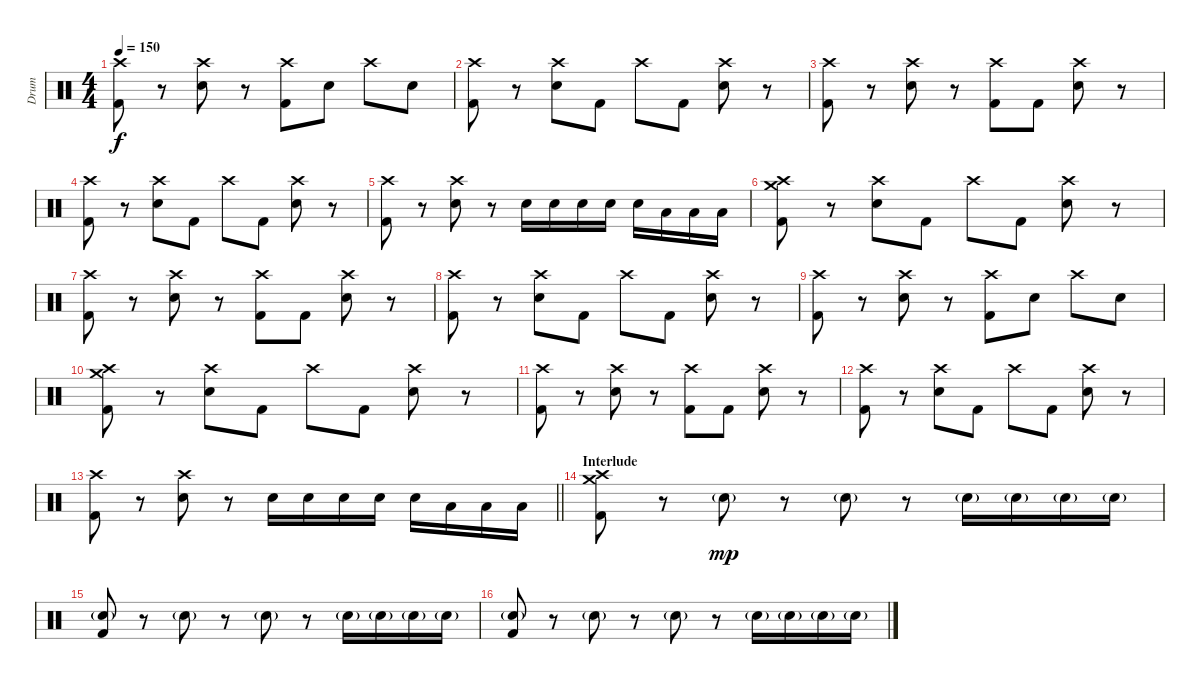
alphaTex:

\track ("Drum" "Drum") {instrument percussion}
\staff {score}
\articulation defaults
\ts (4 4)
\tempo 150
\clef neutral
\ks c
("Crash high (hit)" "Kick (hit) 2").8{dy f} r.8 ("Crash high (hit)" "Electric Snare (hit)").8 r.8 ("Crash high (hit)" "Kick (hit) 2").8 "Electric Snare (hit)".8 "Crash high (hit)".8 "Electric Snare (hit)".8 |
("Crash high (hit)" "Kick (hit) 2").8 r.8 ("Crash high (hit)" "Electric Snare (hit)").8 "Kick (hit) 2".8 "Crash high (hit)".8 "Kick (hit) 2".8 ("Crash high (hit)" "Electric Snare (hit)").8 r.8 |
("Crash high (hit)" "Kick (hit) 2").8 r.8 ("Crash high (hit)" "Electric Snare (hit)").8 r.8 ("Crash high (hit)" "Kick (hit) 2").8 "Kick (hit) 2".8 ("Crash high (hit)" "Electric Snare (hit)").8 r.8 |
("Crash high (hit)" "Kick (hit) 2").8 r.8 ("Crash high (hit)" "Electric Snare (hit)").8 "Kick (hit) 2".8 "Crash high (hit)".8 "Kick (hit) 2".8 ("Crash high (hit)" "Electric Snare (hit)").8 r.8 |
("Crash high (hit)" "Kick (hit) 2").8 r.8 ("Crash high (hit)" "Electric Snare (hit)").8 r.8 "Electric Snare (hit)".16 "Electric Snare (hit)".16 "Electric Snare (hit)".16 "Electric Snare (hit)".16 "Electric Snare (hit)".16 "Low Floor Tom (hit)".16 "Low Floor Tom (hit)".16 "Low Floor Tom (hit)".16 |
("Crash high (hit)" "Kick (hit) 2" "Crash medium (hit)").8 r.8 ("Crash high (hit)" "Electric Snare (hit)").8 "Kick (hit) 2".8 "Crash high (hit)".8 "Kick (hit) 2".8 ("Crash high (hit)" "Electric Snare (hit)").8 r.8 |
("Crash high (hit)" "Kick (hit) 2").8 r.8 ("Crash high (hit)" "Electric Snare (hit)").8 r.8 ("Crash high (hit)" "Kick (hit) 2").8 "Kick (hit) 2".8 ("Crash high (hit)" "Electric Snare (hit)").8 r.8 |
("Crash high (hit)" "Kick (hit) 2").8 r.8 ("Crash high (hit)" "Electric Snare (hit)").8 "Kick (hit) 2".8 "Crash high (hit)".8 "Kick (hit) 2".8 ("Crash high (hit)" "Electric Snare (hit)").8 r.8 |
("Crash high (hit)" "Kick (hit) 2").8 r.8 ("Crash high (hit)" "Electric Snare (hit)").8 r.8 ("Crash high (hit)" "Kick (hit) 2").8 "Electric Snare (hit)".8 "Crash high (hit)".8 "Electric Snare (hit)".8 |
("Crash high (hit)" "Kick (hit) 2" "Crash medium (hit)").8 r.8 ("Crash high (hit)" "Electric Snare (hit)").8 "Kick (hit) 2".8 "Crash high (hit)".8 "Kick (hit) 2".8 ("Crash high (hit)" "Electric Snare (hit)").8 r.8 |
("Crash high (hit)" "Kick (hit) 2").8 r.8 ("Crash high (hit)" "Electric Snare (hit)").8 r.8 ("Crash high (hit)" "Kick (hit) 2").8 "Kick (hit) 2".8 ("Crash high (hit)" "Electric Snare (hit)").8 r.8 |
("Crash high (hit)" "Kick (hit) 2").8 r.8 ("Crash high (hit)" "Electric Snare (hit)").8 "Kick (hit) 2".8 "Crash high (hit)".8 "Kick (hit) 2".8 ("Crash high (hit)" "Electric Snare (hit)").8 r.8 |
\barLineRight lightlight
("Crash high (hit)" "Kick (hit) 2").8 r.8 ("Crash high (hit)" "Electric Snare (hit)").8 r.8 "Electric Snare (hit)".16 "Electric Snare (hit)".16 "Electric Snare (hit)".16 "Electric Snare (hit)".16 "Electric Snare (hit)".16 "Low Floor Tom (hit)".16 "Low Floor Tom (hit)".16 "Low Floor Tom (hit)".16 |
\section ("" "Interlude")
("Crash high (hit)" "Crash medium (hit)" "Kick (hit) 2").8 r.8 "Electric Snare (hit)"{g}.8{dy mp} r.8 "Electric Snare (hit)"{g}.8 r.8 "Electric Snare (hit)"{g}.16 "Electric Snare (hit)"{g}.16 "Electric Snare (hit)"{g}.16 "Electric Snare (hit)"{g}.16 |
("Electric Snare (hit)"{g} "Kick (hit) 2").8 r.8 "Electric Snare (hit)"{g}.8 r.8 "Electric Snare (hit)"{g}.8 r.8 "Electric Snare (hit)"{g}.16 "Electric Snare (hit)"{g}.16 "Electric Snare (hit)"{g}.16 "Electric Snare (hit)"{g}.16 |
("Electric Snare (hit)"{g} "Kick (hit) 2").8 r.8 "Electric Snare (hit)"{g}.8 r.8 "Electric Snare (hit)"{g}.8 r.8 "Electric Snare (hit)"{g}.16 "Electric Snare (hit)"{g}.16 "Electric Snare (hit)"{g}.16 "Electric Snare (hit)"{g}.16
